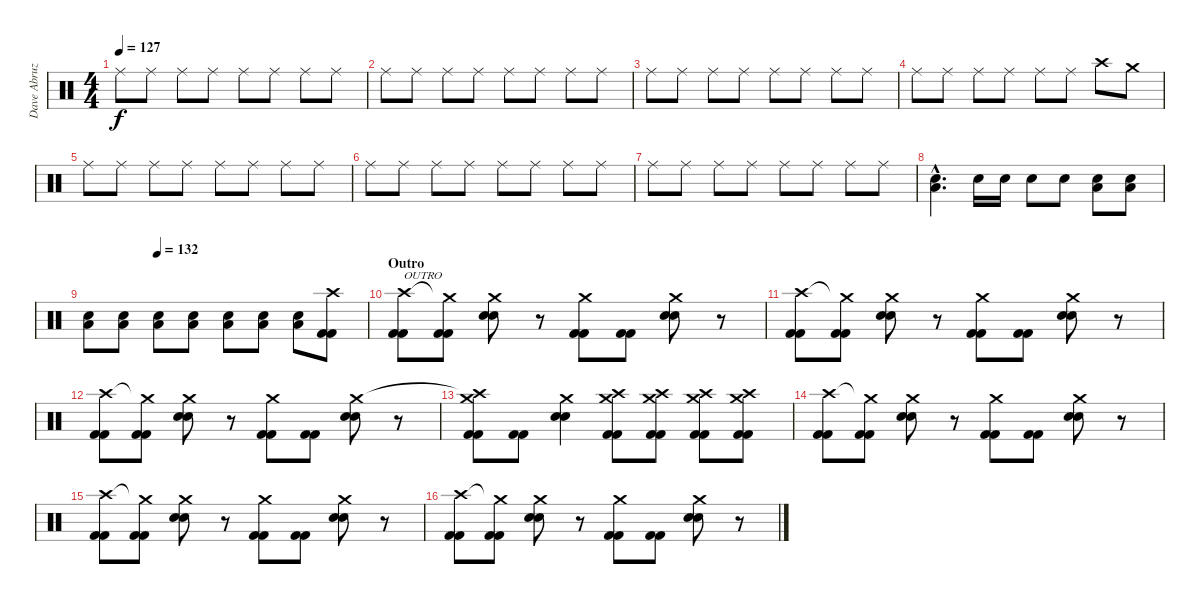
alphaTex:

\track ("Dave Abruzzesse" "Dave Abruz") {instrument percussion}
\staff {score}
\articulation defaults
\ts (4 4)
\tempo 127
\clef neutral
\ks c "Ride (middle)".8{dy f} "Ride (middle)".8 "Ride (middle)".8 "Ride (middle)".8 "Ride (middle)".8 "Ride (middle)".8 "Ride (middle)".8 "Ride (middle)".8
|
"Ride (middle)".8 "Ride (middle)".8 "Ride (middle)".8 "Ride (middle)".8 "Ride (middle)".8 "Ride (middle)".8 "Ride (middle)".8 "Ride (middle)".8 |
"Ride (middle)".8 "Ride (middle)".8 "Ride (middle)".8 "Ride (middle)".8 "Ride (middle)".8 "Ride (middle)".8 "Ride (middle)".8 "Ride (middle)".8 |
"Ride (middle)".8 "Ride (middle)".8 "Ride (middle)".8 "Ride (middle)".8 "Ride (middle)".8 "Ride (middle)".8 "Crash high (hit)".8 "Crash medium (hit)".8 |
"Ride (middle)".8 "Ride (middle)".8 "Ride (middle)".8 "Ride (middle)".8 "Ride (middle)".8 "Ride (middle)".8 "Ride (middle)".8 "Ride (middle)".8 |
"Ride (middle)".8 "Ride (middle)".8 "Ride (middle)".8 "Ride (middle)".8 "Ride (middle)".8 "Ride (middle)".8 "Ride (middle)".8 "Ride (middle)".8 |
"Ride (middle)".8 "Ride (middle)".8 "Ride (middle)".8 "Ride (middle)".8 "Ride (middle)".8 "Ride (middle)".8 "Ride (middle)".8 "Ride (middle)".8 |
("Snare (hit) 2"{hac} "Low Tom (hit)"{hac}).4{d} "Snare (hit) 2".16 "Snare (hit) 2".16 "Snare (hit) 2".8 "Snare (hit) 2".8 ("Snare (hit) 2" "Low Tom (hit)").8 ("Snare (hit) 2" "Low Tom (hit)").8 |
\tempo (132 0.25)
("Electric Snare (hit)" "Low Tom (hit)").8 ("Electric Snare (hit)" "Low Tom (hit)").8 ("Electric Snare (hit)" "Low Tom (hit)").8 ("Electric Snare (hit)" "Low Tom (hit)").8 ("Electric Snare (hit)" "Low Tom (hit)").8 ("Electric Snare (hit)" "Low Tom (hit)").8 ("Electric Snare (hit)" "Low Tom (hit)").8 ("Crash high (hit)" "Kick (hit) 2" "Kick (hit) 2").8 |
\section ("" "Outro")
("Crash high (hit)" "Kick (hit) 2" "Kick (hit) 2").8{txt "OUTRO"} ("Crash medium (hit)"{t} "Kick (hit) 2" "Kick (hit) 2").8 ("Crash medium (hit)" "Snare (hit) 2" "Snare (hit) 2").8 r.8 ("Crash medium (hit)" "Kick (hit) 2" "Kick (hit) 2").8 ("Kick (hit) 2" "Kick (hit) 2").8 ("Crash medium (hit)" "Snare (hit) 2" "Snare (hit) 2").8 r.8 |
("Crash high (hit)" "Kick (hit) 2" "Kick (hit) 2").8 ("Crash medium (hit)"{t} "Kick (hit) 2" "Kick (hit) 2").8 ("Crash medium (hit)" "Snare (hit) 2" "Snare (hit) 2").8 r.8 ("Crash medium (hit)" "Kick (hit) 2" "Kick (hit) 2").8 ("Kick (hit) 2" "Kick (hit) 2").8 ("Crash medium (hit)" "Snare (hit) 2" "Snare (hit) 2").8 r.8 |
("Crash high (hit)" "Kick (hit) 2" "Kick (hit) 2").8 ("Crash medium (hit)"{t} "Kick (hit) 2" "Kick (hit) 2").8 ("Crash medium (hit)" "Snare (hit) 2" "Snare (hit) 2").8 r.8 ("Crash medium (hit)" "Kick (hit) 2" "Kick (hit) 2").8 ("Kick (hit) 2" "Kick (hit) 2").8 ("Crash medium (hit)" "Snare (hit) 2" "Snare (hit) 2").8 r.8 |
("Crash high (hit)"{t} "Crash medium (hit)" "Kick (hit) 2" "Kick (hit) 2").8 ("Kick (hit) 2" "Kick (hit) 2").8 ("Crash medium (hit)" "Snare (hit) 2" "Snare (hit) 2").4 ("Crash high (hit)" "Crash medium (hit)" "Kick (hit) 2" "Kick (hit) 2").8 ("Crash high (hit)" "Crash medium (hit)" "Kick (hit) 2" "Kick (hit) 2").8 ("Crash high (hit)" "Crash medium (hit)" "Kick (hit) 2" "Kick (hit) 2").8 ("Crash high (hit)" "Crash medium (hit)" "Kick (hit) 2" "Kick (hit) 2").8 |
("Crash high (hit)" "Kick (hit) 2" "Kick (hit) 2").8 ("Crash medium (hit)"{t} "Kick (hit) 2" "Kick (hit) 2").8 ("Crash medium (hit)" "Snare (hit) 2" "Snare (hit) 2").8 r.8 ("Crash medium (hit)" "Kick (hit) 2" "Kick (hit) 2").8 ("Kick (hit) 2" "Kick (hit) 2").8 ("Crash medium (hit)" "Snare (hit) 2" "Snare (hit) 2").8 r.8 |
("Crash high (hit)" "Kick (hit) 2" "Kick (hit) 2").8 ("Crash medium (hit)"{t} "Kick (hit) 2" "Kick (hit) 2").8 ("Crash medium (hit)" "Snare (hit) 2" "Snare (hit) 2").8 r.8 ("Crash medium (hit)" "Kick (hit) 2" "Kick (hit) 2").8 ("Kick (hit) 2" "Kick (hit) 2").8 ("Crash medium (hit)" "Snare (hit) 2" "Snare (hit) 2").8 r.8 |
("Crash high (hit)" "Kick (hit) 2" "Kick (hit) 2").8 ("Crash medium (hit)"{t} "Kick (hit) 2" "Kick (hit) 2").8 ("Crash medium (hit)" "Snare (hit) 2" "Snare (hit) 2").8 r.8 ("Crash medium (hit)" "Kick (hit) 2" "Kick (hit) 2").8 ("Kick (hit) 2" "Kick (hit) 2").8 ("Crash medium (hit)" "Snare (hit) 2" "Snare (hit) 2").8 r.8
